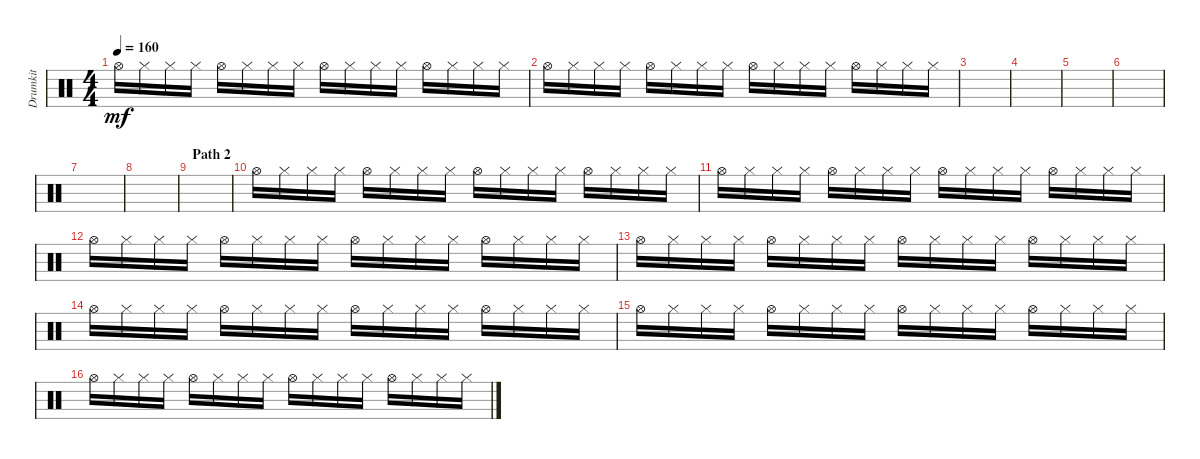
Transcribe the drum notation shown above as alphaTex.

\track ("Drumkit" "Drumkit") {instrument percussion}
\staff {score}
\articulation defaults
\ts (4 4)
\tempo 160
\clef neutral
\ks c "Hi-Hat (open)".16{dy mf} "Hi-Hat (closed)".16 "Hi-Hat (closed)".16 "Hi-Hat (closed)".16 "Hi-Hat (open)".16 "Hi-Hat (closed)".16 "Hi-Hat (closed)".16 "Hi-Hat (closed)".16 "Hi-Hat (open)".16 "Hi-Hat (closed)".16 "Hi-Hat (closed)".16 "Hi-Hat (closed)".16 "Hi-Hat (open)".16 "Hi-Hat (closed)".16 "Hi-Hat (closed)".16 "Hi-Hat (closed)".16
|
"Hi-Hat (open)".16 "Hi-Hat (closed)".16 "Hi-Hat (closed)".16 "Hi-Hat (closed)".16 "Hi-Hat (open)".16 "Hi-Hat (closed)".16 "Hi-Hat (closed)".16 "Hi-Hat (closed)".16 "Hi-Hat (open)".16 "Hi-Hat (closed)".16 "Hi-Hat (closed)".16 "Hi-Hat (closed)".16 "Hi-Hat (open)".16 "Hi-Hat (closed)".16 "Hi-Hat (closed)".16 "Hi-Hat (closed)".16 |
|
|
|
|
|
|
\section ("" "Path 2")
|
"Hi-Hat (open)".16 "Hi-Hat (closed)".16 "Hi-Hat (closed)".16 "Hi-Hat (closed)".16 "Hi-Hat (open)".16 "Hi-Hat (closed)".16 "Hi-Hat (closed)".16 "Hi-Hat (closed)".16 "Hi-Hat (open)".16 "Hi-Hat (closed)".16 "Hi-Hat (closed)".16 "Hi-Hat (closed)".16 "Hi-Hat (open)".16 "Hi-Hat (closed)".16 "Hi-Hat (closed)".16 "Hi-Hat (closed)".16 |
"Hi-Hat (open)".16 "Hi-Hat (closed)".16 "Hi-Hat (closed)".16 "Hi-Hat (closed)".16 "Hi-Hat (open)".16 "Hi-Hat (closed)".16 "Hi-Hat (closed)".16 "Hi-Hat (closed)".16 "Hi-Hat (open)".16 "Hi-Hat (closed)".16 "Hi-Hat (closed)".16 "Hi-Hat (closed)".16 "Hi-Hat (open)".16 "Hi-Hat (closed)".16 "Hi-Hat (closed)".16 "Hi-Hat (closed)".16 |
"Hi-Hat (open)".16 "Hi-Hat (closed)".16 "Hi-Hat (closed)".16 "Hi-Hat (closed)".16 "Hi-Hat (open)".16 "Hi-Hat (closed)".16 "Hi-Hat (closed)".16 "Hi-Hat (closed)".16 "Hi-Hat (open)".16 "Hi-Hat (closed)".16 "Hi-Hat (closed)".16 "Hi-Hat (closed)".16 "Hi-Hat (open)".16 "Hi-Hat (closed)".16 "Hi-Hat (closed)".16 "Hi-Hat (closed)".16 |
"Hi-Hat (open)".16 "Hi-Hat (closed)".16 "Hi-Hat (closed)".16 "Hi-Hat (closed)".16 "Hi-Hat (open)".16 "Hi-Hat (closed)".16 "Hi-Hat (closed)".16 "Hi-Hat (closed)".16 "Hi-Hat (open)".16 "Hi-Hat (closed)".16 "Hi-Hat (closed)".16 "Hi-Hat (closed)".16 "Hi-Hat (open)".16 "Hi-Hat (closed)".16 "Hi-Hat (closed)".16 "Hi-Hat (closed)".16 |
"Hi-Hat (open)".16 "Hi-Hat (closed)".16 "Hi-Hat (closed)".16 "Hi-Hat (closed)".16 "Hi-Hat (open)".16 "Hi-Hat (closed)".16 "Hi-Hat (closed)".16 "Hi-Hat (closed)".16 "Hi-Hat (open)".16 "Hi-Hat (closed)".16 "Hi-Hat (closed)".16 "Hi-Hat (closed)".16 "Hi-Hat (open)".16 "Hi-Hat (closed)".16 "Hi-Hat (closed)".16 "Hi-Hat (closed)".16 |
"Hi-Hat (open)".16 "Hi-Hat (closed)".16 "Hi-Hat (closed)".16 "Hi-Hat (closed)".16 "Hi-Hat (open)".16 "Hi-Hat (closed)".16 "Hi-Hat (closed)".16 "Hi-Hat (closed)".16 "Hi-Hat (open)".16 "Hi-Hat (closed)".16 "Hi-Hat (closed)".16 "Hi-Hat (closed)".16 "Hi-Hat (open)".16 "Hi-Hat (closed)".16 "Hi-Hat (closed)".16 "Hi-Hat (closed)".16 |
"Hi-Hat (open)".16 "Hi-Hat (closed)".16 "Hi-Hat (closed)".16 "Hi-Hat (closed)".16 "Hi-Hat (open)".16 "Hi-Hat (closed)".16 "Hi-Hat (closed)".16 "Hi-Hat (closed)".16 "Hi-Hat (open)".16 "Hi-Hat (closed)".16 "Hi-Hat (closed)".16 "Hi-Hat (closed)".16 "Hi-Hat (open)".16 "Hi-Hat (closed)".16 "Hi-Hat (closed)".16 "Hi-Hat (closed)".16
